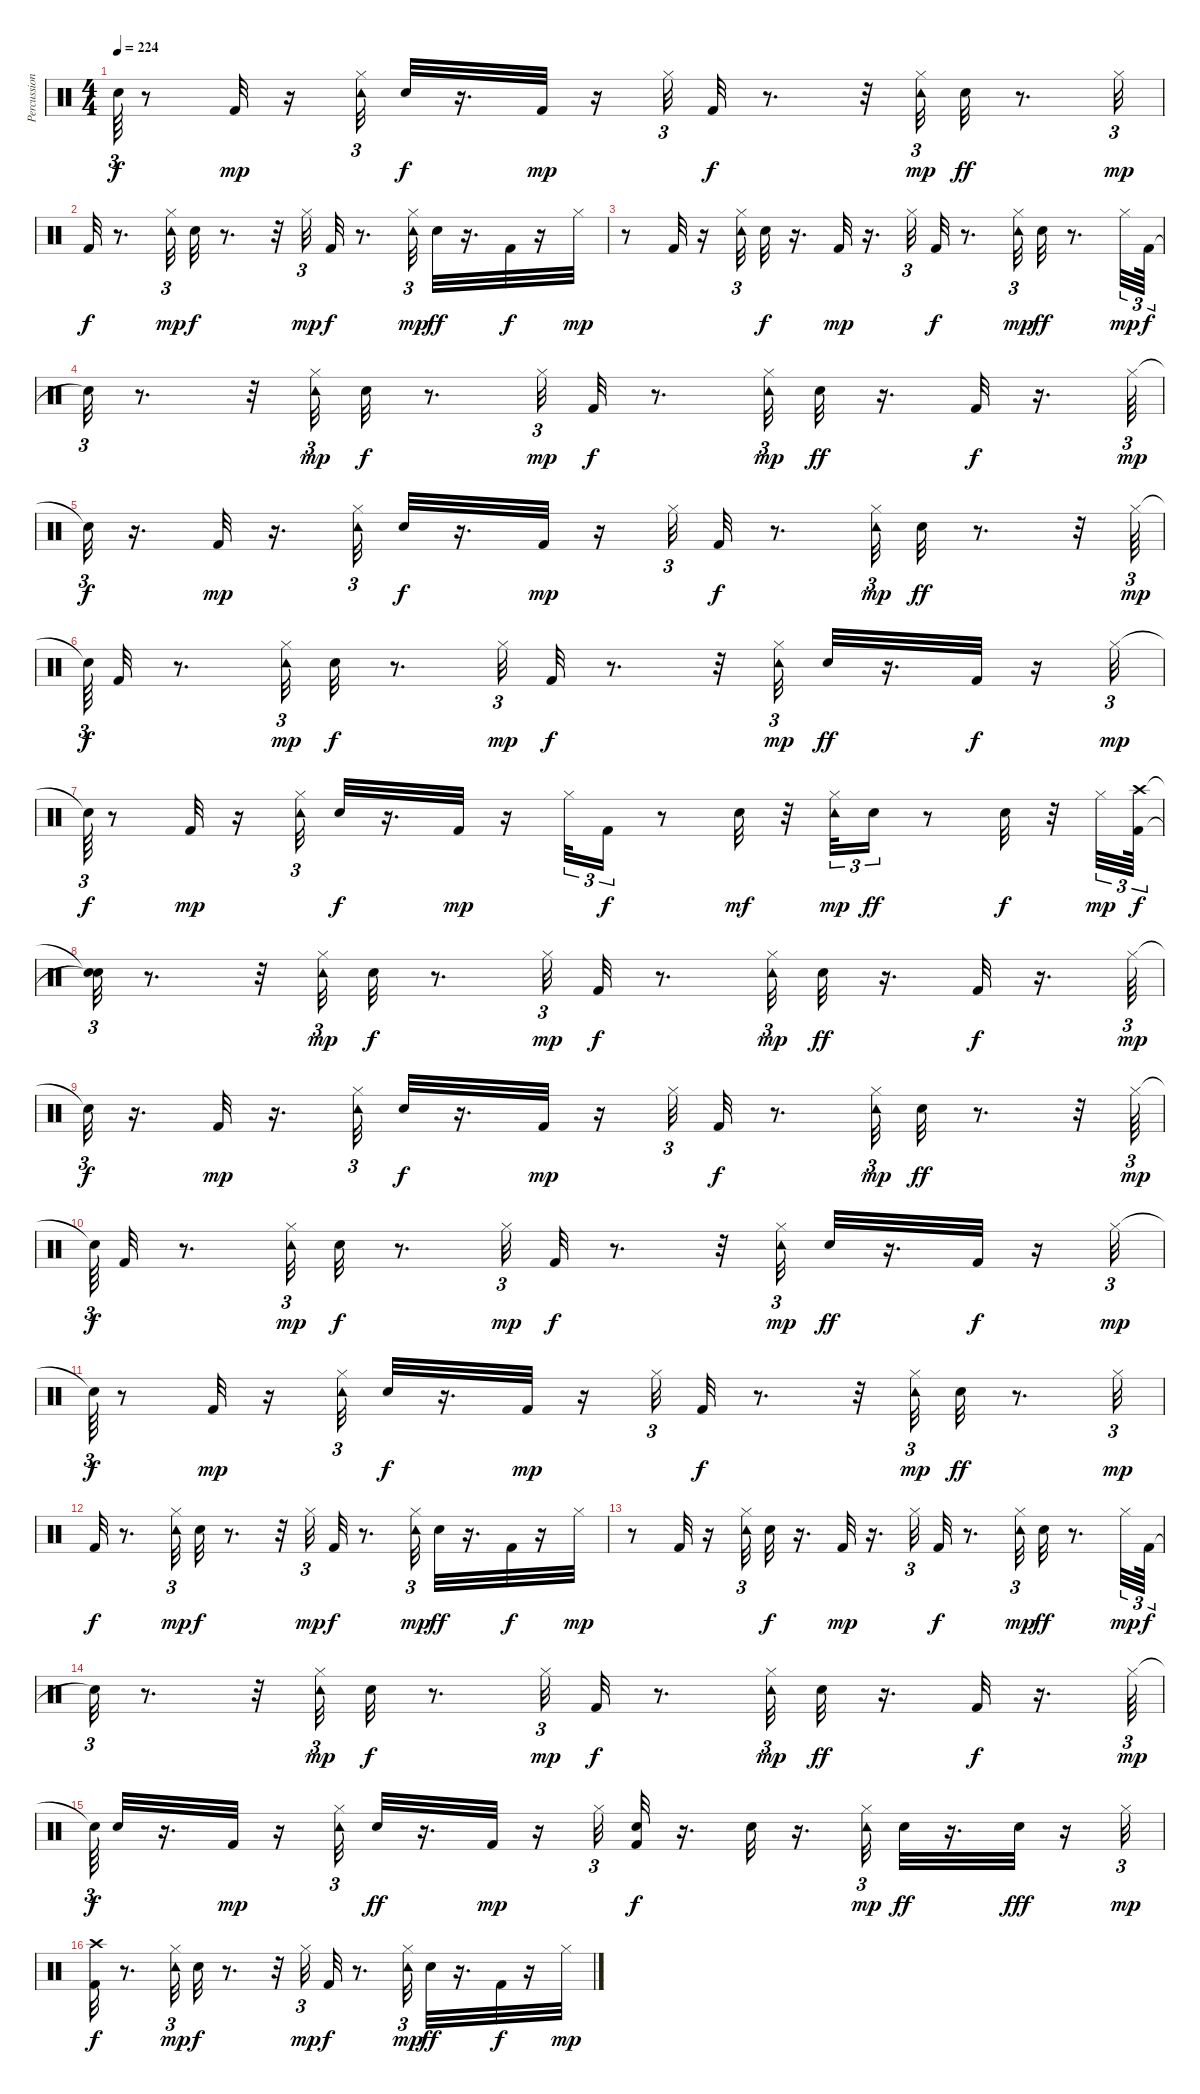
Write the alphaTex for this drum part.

\track ("Percussion" "Percussion") {instrument percussion}
\staff {score}
\articulation defaults
\ts (4 4)
\tempo 224
\clef neutral
\ks c "Snare (hit)"{t}.64{tu (3 2) dy f}
r.8 "Kick (hit) 2".32{dy mp} r.16 ("Tambourine (hit)" "Hi-Hat (closed)").32{tu (3 2)} "Snare (hit) 2".32{dy f} r.16{d} "Kick (hit) 2".32{dy mp} r.16 "Hi-Hat (closed)".32{tu (3 2)} "Kick (hit) 2".32{dy f} r.8{d} r.32 ("Tambourine (hit)" "Hi-Hat (closed)").32{tu (3 2) dy mp} "Snare (hit) 2".32{dy ff} r.8{d} "Hi-Hat (closed)".32{tu (3 2) dy mp} |
"Kick (hit) 2".32{dy f} r.8{d} ("Tambourine (hit)" "Hi-Hat (closed)").32{tu (3 2) dy mp} "Snare (hit) 2".32{dy f} r.8{d} r.32 "Hi-Hat (closed)".32{tu (3 2) dy mp} "Kick (hit) 2".32{dy f} r.8{d} ("Tambourine (hit)" "Hi-Hat (closed)").32{tu (3 2) dy mp} "Snare (hit) 2".32{dy ff} r.16{d} "Kick (hit) 2".32{dy f} r.16 "Hi-Hat (closed)".32{dy mp} |
r.8 "Kick (hit) 2".32 r.16 ("Tambourine (hit)" "Hi-Hat (closed)").32{tu (3 2)} "Snare (hit) 2".32{dy f} r.16{d} "Kick (hit) 2".32{dy mp} r.16{d} "Hi-Hat (closed)".32{tu (3 2)} "Kick (hit) 2".32{dy f} r.8{d} ("Tambourine (hit)" "Hi-Hat (closed)").32{tu (3 2) dy mp} "Snare (hit) 2".32{dy ff} r.8{d} "Hi-Hat (closed)".32{tu (3 2) dy mp} "Kick (hit) 2".64{tu (3 2) dy f} |
"Snare (hit)"{t}.32{tu (3 2)} r.8{d} r.32 ("Tambourine (hit)" "Hi-Hat (closed)").32{tu (3 2) dy mp} "Snare (hit) 2".32{dy f} r.8{d} "Hi-Hat (closed)".32{tu (3 2) dy mp} "Kick (hit) 2".32{dy f} r.8{d} ("Tambourine (hit)" "Hi-Hat (closed)").32{tu (3 2) dy mp} "Snare (hit) 2".32{dy ff} r.16{d} "Kick (hit) 2".32{dy f} r.16{d} "Hi-Hat (closed)".64{tu (3 2) dy mp} |
"Snare (hit)"{t}.32{tu (3 2) dy f} r.16{d} "Kick (hit) 2".32{dy mp} r.16{d} ("Tambourine (hit)" "Hi-Hat (closed)").32{tu (3 2)} "Snare (hit) 2".32{dy f} r.16{d} "Kick (hit) 2".32{dy mp} r.16 "Hi-Hat (closed)".32{tu (3 2)} "Kick (hit) 2".32{dy f} r.8{d} ("Tambourine (hit)" "Hi-Hat (closed)").32{tu (3 2) dy mp} "Snare (hit) 2".32{dy ff} r.8{d} r.32 "Hi-Hat (closed)".64{tu (3 2) dy mp} |
"Snare (hit)"{t}.64{tu (3 2) dy f} "Kick (hit) 2".32 r.8{d} ("Tambourine (hit)" "Hi-Hat (closed)").32{tu (3 2) dy mp} "Snare (hit) 2".32{dy f} r.8{d} "Hi-Hat (closed)".32{tu (3 2) dy mp} "Kick (hit) 2".32{dy f} r.8{d} r.32 ("Tambourine (hit)" "Hi-Hat (closed)").32{tu (3 2) dy mp} "Snare (hit) 2".32{dy ff} r.16{d} "Kick (hit) 2".32{dy f} r.16 "Hi-Hat (closed)".32{tu (3 2) dy mp} |
"Snare (hit)"{t}.64{tu (3 2) dy f} r.8 "Kick (hit) 2".32{dy mp} r.16 ("Tambourine (hit)" "Hi-Hat (closed)").32{tu (3 2)} "Snare (hit) 2".32{dy f} r.16{d} "Kick (hit) 2".32{dy mp} r.16 "Hi-Hat (closed)".32{tu (3 2)} "Kick (hit) 2".16{tu (3 2) dy f} r.8 "Snare (hit) 2".32{dy mf} r.32 ("Tambourine (hit)" "Hi-Hat (closed)").32{tu (3 2) dy mp} "Snare (hit) 2".16{tu (3 2) dy ff} r.8 "Snare (hit) 2".32{dy f} r.32 "Hi-Hat (closed)".32{tu (3 2) dy mp} ("Kick (hit) 2" "Crash high (hit)").64{tu (3 2) dy f} |
("Snare (hit)"{t} "Snare (hit)"{t}).32{tu (3 2)} r.8{d} r.32 ("Tambourine (hit)" "Hi-Hat (closed)").32{tu (3 2) dy mp} "Snare (hit) 2".32{dy f} r.8{d} "Hi-Hat (closed)".32{tu (3 2) dy mp} "Kick (hit) 2".32{dy f} r.8{d} ("Tambourine (hit)" "Hi-Hat (closed)").32{tu (3 2) dy mp} "Snare (hit) 2".32{dy ff} r.16{d} "Kick (hit) 2".32{dy f} r.16{d} "Hi-Hat (closed)".64{tu (3 2) dy mp} |
"Snare (hit)"{t}.32{tu (3 2) dy f} r.16{d} "Kick (hit) 2".32{dy mp} r.16{d} ("Tambourine (hit)" "Hi-Hat (closed)").32{tu (3 2)} "Snare (hit) 2".32{dy f} r.16{d} "Kick (hit) 2".32{dy mp} r.16 "Hi-Hat (closed)".32{tu (3 2)} "Kick (hit) 2".32{dy f} r.8{d} ("Tambourine (hit)" "Hi-Hat (closed)").32{tu (3 2) dy mp} "Snare (hit) 2".32{dy ff} r.8{d} r.32 "Hi-Hat (closed)".64{tu (3 2) dy mp} |
"Snare (hit)"{t}.64{tu (3 2) dy f} "Kick (hit) 2".32 r.8{d} ("Tambourine (hit)" "Hi-Hat (closed)").32{tu (3 2) dy mp} "Snare (hit) 2".32{dy f} r.8{d} "Hi-Hat (closed)".32{tu (3 2) dy mp} "Kick (hit) 2".32{dy f} r.8{d} r.32 ("Tambourine (hit)" "Hi-Hat (closed)").32{tu (3 2) dy mp} "Snare (hit) 2".32{dy ff} r.16{d} "Kick (hit) 2".32{dy f} r.16 "Hi-Hat (closed)".32{tu (3 2) dy mp} |
"Snare (hit)"{t}.64{tu (3 2) dy f} r.8 "Kick (hit) 2".32{dy mp} r.16 ("Tambourine (hit)" "Hi-Hat (closed)").32{tu (3 2)} "Snare (hit) 2".32{dy f} r.16{d} "Kick (hit) 2".32{dy mp} r.16 "Hi-Hat (closed)".32{tu (3 2)} "Kick (hit) 2".32{dy f} r.8{d} r.32 ("Tambourine (hit)" "Hi-Hat (closed)").32{tu (3 2) dy mp} "Snare (hit) 2".32{dy ff} r.8{d} "Hi-Hat (closed)".32{tu (3 2) dy mp} |
"Kick (hit) 2".32{dy f} r.8{d} ("Tambourine (hit)" "Hi-Hat (closed)").32{tu (3 2) dy mp} "Snare (hit) 2".32{dy f} r.8{d} r.32 "Hi-Hat (closed)".32{tu (3 2) dy mp} "Kick (hit) 2".32{dy f} r.8{d} ("Tambourine (hit)" "Hi-Hat (closed)").32{tu (3 2) dy mp} "Snare (hit) 2".32{dy ff} r.16{d} "Kick (hit) 2".32{dy f} r.16 "Hi-Hat (closed)".32{dy mp} |
r.8 "Kick (hit) 2".32 r.16 ("Tambourine (hit)" "Hi-Hat (closed)").32{tu (3 2)} "Snare (hit) 2".32{dy f} r.16{d} "Kick (hit) 2".32{dy mp} r.16{d} "Hi-Hat (closed)".32{tu (3 2)} "Kick (hit) 2".32{dy f} r.8{d} ("Tambourine (hit)" "Hi-Hat (closed)").32{tu (3 2) dy mp} "Snare (hit) 2".32{dy ff} r.8{d} "Hi-Hat (closed)".32{tu (3 2) dy mp} "Kick (hit) 2".64{tu (3 2) dy f} |
"Snare (hit)"{t}.32{tu (3 2)} r.8{d} r.32 ("Tambourine (hit)" "Hi-Hat (closed)").32{tu (3 2) dy mp} "Snare (hit) 2".32{dy f} r.8{d} "Hi-Hat (closed)".32{tu (3 2) dy mp} "Kick (hit) 2".32{dy f} r.8{d} ("Tambourine (hit)" "Hi-Hat (closed)").32{tu (3 2) dy mp} "Snare (hit) 2".32{dy ff} r.16{d} "Kick (hit) 2".32{dy f} r.16{d} "Hi-Hat (closed)".64{tu (3 2) dy mp} |
"Snare (hit)"{t}.64{tu (3 2) dy f} "Snare (hit) 2".32 r.16{d} "Kick (hit) 2".32{dy mp} r.16 ("Tambourine (hit)" "Hi-Hat (closed)").32{tu (3 2)} "Snare (hit) 2".32{dy ff} r.16{d} "Kick (hit) 2".32{dy mp} r.16 "Hi-Hat (closed)".32{tu (3 2)} ("Kick (hit) 2" "Snare (hit) 2").32{dy f} r.16{d} "Snare (hit) 2".32 r.16{d} ("Tambourine (hit)" "Hi-Hat (closed)").32{tu (3 2) dy mp} "Snare (hit) 2".32{dy ff} r.16{d} "Snare (hit) 2".32{dy fff} r.16 "Hi-Hat (closed)".32{tu (3 2) dy mp} |
("Kick (hit) 2" "Crash high (hit)").32{dy f} r.8{d} ("Tambourine (hit)" "Hi-Hat (closed)").32{tu (3 2) dy mp} "Snare (hit) 2".32{dy f} r.8{d} r.32 "Hi-Hat (closed)".32{tu (3 2) dy mp} "Kick (hit) 2".32{dy f} r.8{d} ("Tambourine (hit)" "Hi-Hat (closed)").32{tu (3 2) dy mp} "Snare (hit) 2".32{dy ff} r.16{d} "Kick (hit) 2".32{dy f} r.16 "Hi-Hat (closed)".32{dy mp}
